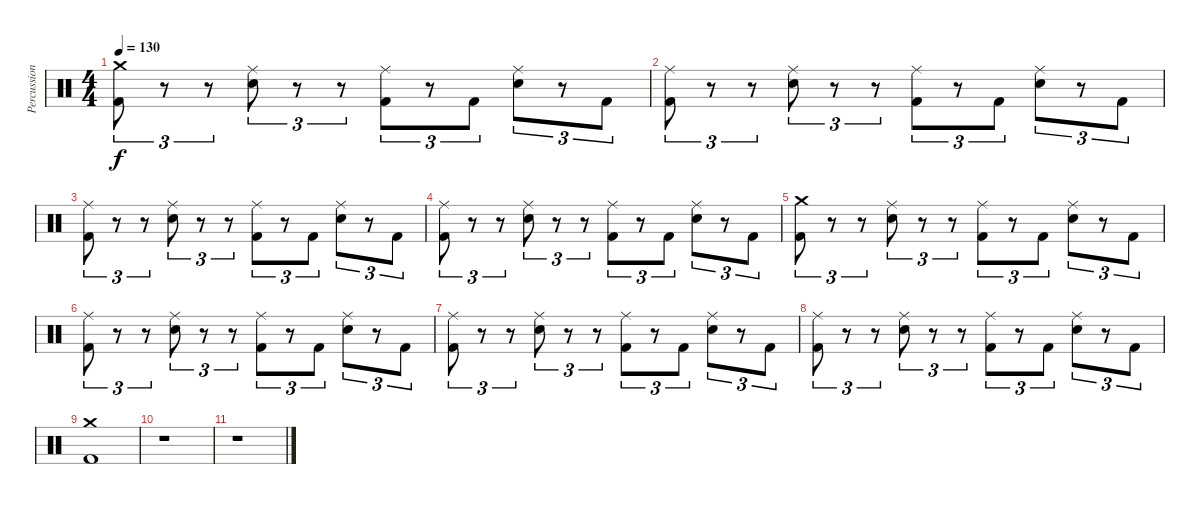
\track ("Percussion" "Percussion") {instrument percussion}
\staff {score}
\articulation defaults
\ts (4 4)
\tempo 130
\clef neutral
\ks c
("Crash medium (hit)" "Kick (hit) 2").8{tu (3 2) dy f} r.8{tu (3 2)} r.8{tu (3 2)} ("Ride (middle)" "Snare (hit) 2").8{tu (3 2)} r.8{tu (3 2)} r.8{tu (3 2)} ("Ride (middle)" "Kick (hit) 2").8{tu (3 2)} r.8{tu (3 2)} "Kick (hit) 2".8{tu (3 2)} ("Ride (middle)" "Snare (hit) 2").8{tu (3 2)} r.8{tu (3 2)} "Kick (hit) 2".8{tu (3 2)} |
("Ride (middle)" "Kick (hit) 2").8{tu (3 2)} r.8{tu (3 2)} r.8{tu (3 2)} ("Ride (middle)" "Snare (hit) 2").8{tu (3 2)} r.8{tu (3 2)} r.8{tu (3 2)} ("Ride (middle)" "Kick (hit) 2").8{tu (3 2)} r.8{tu (3 2)} "Kick (hit) 2".8{tu (3 2)} ("Ride (middle)" "Snare (hit) 2").8{tu (3 2)} r.8{tu (3 2)} "Kick (hit) 2".8{tu (3 2)} |
("Ride (middle)" "Kick (hit) 2").8{tu (3 2)} r.8{tu (3 2)} r.8{tu (3 2)} ("Ride (middle)" "Snare (hit) 2").8{tu (3 2)} r.8{tu (3 2)} r.8{tu (3 2)} ("Ride (middle)" "Kick (hit) 2").8{tu (3 2)} r.8{tu (3 2)} "Kick (hit) 2".8{tu (3 2)} ("Ride (middle)" "Snare (hit) 2").8{tu (3 2)} r.8{tu (3 2)} "Kick (hit) 2".8{tu (3 2)} |
("Ride (middle)" "Kick (hit) 2").8{tu (3 2)} r.8{tu (3 2)} r.8{tu (3 2)} ("Ride (middle)" "Snare (hit) 2").8{tu (3 2)} r.8{tu (3 2)} r.8{tu (3 2)} ("Ride (middle)" "Kick (hit) 2").8{tu (3 2)} r.8{tu (3 2)} "Kick (hit) 2".8{tu (3 2)} ("Ride (middle)" "Snare (hit) 2").8{tu (3 2)} r.8{tu (3 2)} "Kick (hit) 2".8{tu (3 2)} |
("Crash medium (hit)" "Kick (hit) 2").8{tu (3 2)} r.8{tu (3 2)} r.8{tu (3 2)} ("Ride (middle)" "Snare (hit) 2").8{tu (3 2)} r.8{tu (3 2)} r.8{tu (3 2)} ("Ride (middle)" "Kick (hit) 2").8{tu (3 2)} r.8{tu (3 2)} "Kick (hit) 2".8{tu (3 2)} ("Ride (middle)" "Snare (hit) 2").8{tu (3 2)} r.8{tu (3 2)} "Kick (hit) 2".8{tu (3 2)} |
("Ride (middle)" "Kick (hit) 2").8{tu (3 2)} r.8{tu (3 2)} r.8{tu (3 2)} ("Ride (middle)" "Snare (hit) 2").8{tu (3 2)} r.8{tu (3 2)} r.8{tu (3 2)} ("Ride (middle)" "Kick (hit) 2").8{tu (3 2)} r.8{tu (3 2)} "Kick (hit) 2".8{tu (3 2)} ("Ride (middle)" "Snare (hit) 2").8{tu (3 2)} r.8{tu (3 2)} "Kick (hit) 2".8{tu (3 2)} |
("Ride (middle)" "Kick (hit) 2").8{tu (3 2)} r.8{tu (3 2)} r.8{tu (3 2)} ("Ride (middle)" "Snare (hit) 2").8{tu (3 2)} r.8{tu (3 2)} r.8{tu (3 2)} ("Ride (middle)" "Kick (hit) 2").8{tu (3 2)} r.8{tu (3 2)} "Kick (hit) 2".8{tu (3 2)} ("Ride (middle)" "Snare (hit) 2").8{tu (3 2)} r.8{tu (3 2)} "Kick (hit) 2".8{tu (3 2)} |
("Ride (middle)" "Kick (hit) 2").8{tu (3 2)} r.8{tu (3 2)} r.8{tu (3 2)} ("Ride (middle)" "Snare (hit) 2").8{tu (3 2)} r.8{tu (3 2)} r.8{tu (3 2)} ("Ride (middle)" "Kick (hit) 2").8{tu (3 2)} r.8{tu (3 2)} "Kick (hit) 2".8{tu (3 2)} ("Ride (middle)" "Snare (hit) 2").8{tu (3 2)} r.8{tu (3 2)} "Kick (hit) 2".8{tu (3 2)} |
("Crash medium (hit)" "Kick (hit) 2").1 |
r.1 |
r.1
